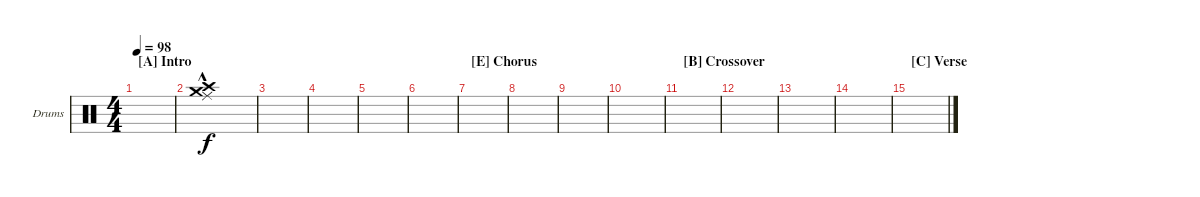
\defaultSystemsLayout 4
\bracketExtendMode groupsimilarinstruments
\firstSystemTrackNameOrientation horizontal
\otherSystemsTrackNameOrientation horizontal
\track ("Drumkit" "Drums") {instrument percussion}
\staff {score}
\articulation defaults
\ts (4 4)
\section ("A" "Intro")
\tempo 98
\clef neutral
\scale
0.474178
\ks c
|
\scale
0.262911 ("Crash medium (hit)"{hac} "Crash high (hit)"{hac} "Ride (middle)"{hac}).1 |
\scale
0.262911 |
|
|
|
\section ("E" "Chorus")
|
|
|
|
\section ("B" "Crossover")
|
|
|
|
\section ("C" "Verse")
